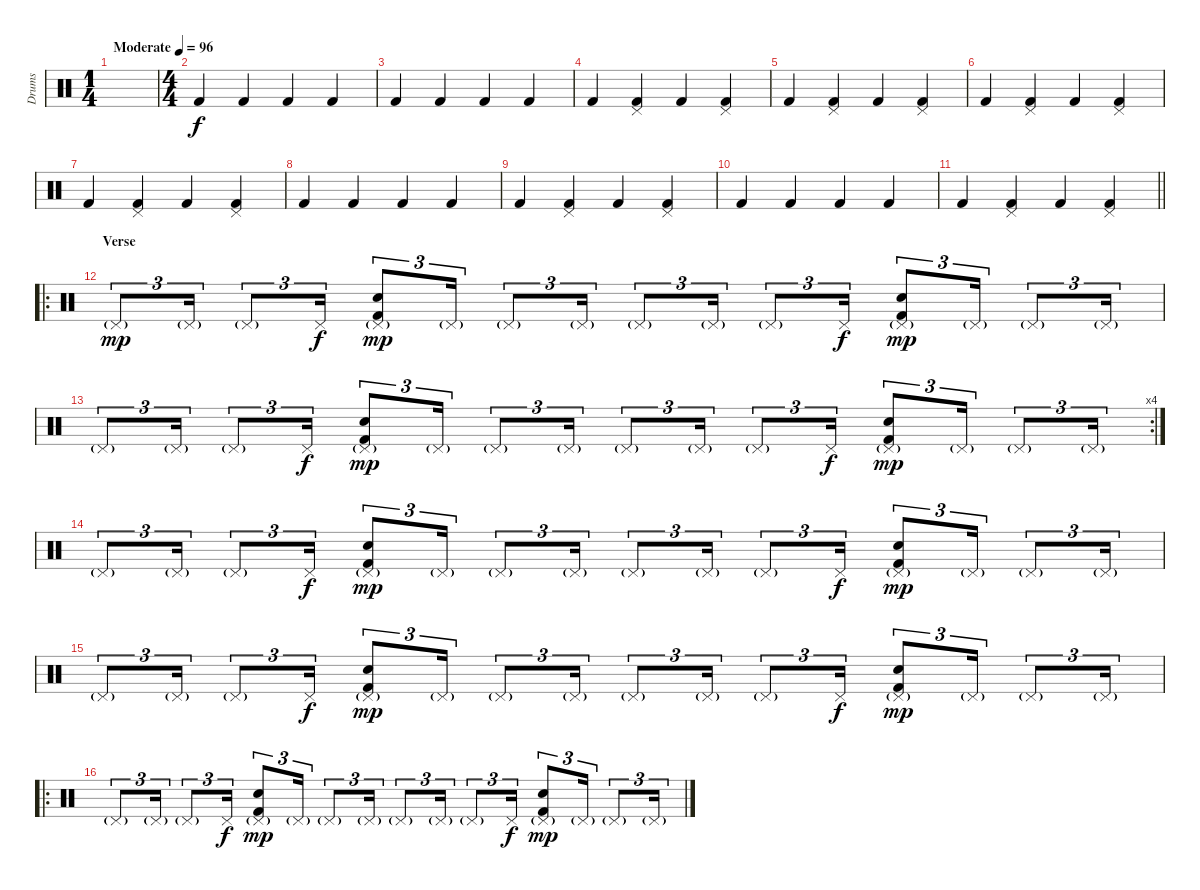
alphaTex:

\track ("Drums" "Drums") {instrument percussion}
\staff {score}
\articulation defaults
\ts (1 4)
\tempo (96 "Moderate")
\clef neutral
\ks c
|
\ts (4 4)
"Kick (hit) 2".4 "Kick (hit) 2".4 "Kick (hit) 2".4 "Kick (hit) 2".4 |
"Kick (hit) 2".4 "Kick (hit) 2".4 "Kick (hit) 2".4 "Kick (hit) 2".4 |
"Kick (hit) 2".4 ("Pedal Hi-Hat (hit)" "Kick (hit) 2").4 "Kick (hit) 2".4 ("Pedal Hi-Hat (hit)" "Kick (hit) 2").4 |
"Kick (hit) 2".4 ("Pedal Hi-Hat (hit)" "Kick (hit) 2").4 "Kick (hit) 2".4 ("Pedal Hi-Hat (hit)" "Kick (hit) 2").4 |
"Kick (hit) 2".4 ("Pedal Hi-Hat (hit)" "Kick (hit) 2").4 "Kick (hit) 2".4 ("Pedal Hi-Hat (hit)" "Kick (hit) 2").4 |
"Kick (hit) 2".4 ("Pedal Hi-Hat (hit)" "Kick (hit) 2").4 "Kick (hit) 2".4 ("Pedal Hi-Hat (hit)" "Kick (hit) 2").4 |
"Kick (hit) 2".4 "Kick (hit) 2".4 "Kick (hit) 2".4 "Kick (hit) 2".4 |
"Kick (hit) 2".4 ("Pedal Hi-Hat (hit)" "Kick (hit) 2").4 "Kick (hit) 2".4 ("Pedal Hi-Hat (hit)" "Kick (hit) 2").4 |
"Kick (hit) 2".4 "Kick (hit) 2".4 "Kick (hit) 2".4 "Kick (hit) 2".4 |
\barLineRight lightlight "Kick (hit) 2".4
("Pedal Hi-Hat (hit)" "Kick (hit) 2").4 "Kick (hit) 2".4 ("Pedal Hi-Hat (hit)" "Kick (hit) 2").4 |
\ro
\section ("" "Verse")
"Pedal Hi-Hat (hit)"{g}.8{tu (3 2) dy mp} "Pedal Hi-Hat (hit)"{g}.16{tu (3 2)} "Pedal Hi-Hat (hit)"{g}.8{tu (3 2)} "Pedal Hi-Hat (hit)".16{tu (3 2) dy f} ("Pedal Hi-Hat (hit)"{g} "Electric Snare (hit)" "Kick (hit) 2").8{tu (3 2) dy mp} "Pedal Hi-Hat (hit)"{g}.16{tu (3 2)} "Pedal Hi-Hat (hit)"{g}.8{tu (3 2)} "Pedal Hi-Hat (hit)"{g}.16{tu (3 2)} "Pedal Hi-Hat (hit)"{g}.8{tu (3 2)} "Pedal Hi-Hat (hit)"{g}.16{tu (3 2)} "Pedal Hi-Hat (hit)"{g}.8{tu (3 2)} "Pedal Hi-Hat (hit)".16{tu (3 2) dy f} ("Pedal Hi-Hat (hit)"{g} "Electric Snare (hit)" "Kick (hit) 2").8{tu (3 2) dy mp} "Pedal Hi-Hat (hit)"{g}.16{tu (3 2)} "Pedal Hi-Hat (hit)"{g}.8{tu (3 2)} "Pedal Hi-Hat (hit)"{g}.16{tu (3 2)} |
\rc 4 "Pedal Hi-Hat (hit)"{g}.8{tu (3 2)} "Pedal Hi-Hat (hit)"{g}.16{tu (3 2)} "Pedal Hi-Hat (hit)"{g}.8{tu (3 2)} "Pedal Hi-Hat (hit)".16{tu (3 2) dy f}
("Pedal Hi-Hat (hit)"{g} "Electric Snare (hit)" "Kick (hit) 2").8{tu (3 2) dy mp} "Pedal Hi-Hat (hit)"{g}.16{tu (3 2)} "Pedal Hi-Hat (hit)"{g}.8{tu (3 2)} "Pedal Hi-Hat (hit)"{g}.16{tu (3 2)} "Pedal Hi-Hat (hit)"{g}.8{tu (3 2)} "Pedal Hi-Hat (hit)"{g}.16{tu (3 2)} "Pedal Hi-Hat (hit)"{g}.8{tu (3 2)} "Pedal Hi-Hat (hit)".16{tu (3 2) dy f} ("Pedal Hi-Hat (hit)"{g} "Electric Snare (hit)" "Kick (hit) 2").8{tu (3 2) dy mp} "Pedal Hi-Hat (hit)"{g}.16{tu (3 2)} "Pedal Hi-Hat (hit)"{g}.8{tu (3 2)} "Pedal Hi-Hat (hit)"{g}.16{tu (3 2)} |
"Pedal Hi-Hat (hit)"{g}.8{tu (3 2)} "Pedal Hi-Hat (hit)"{g}.16{tu (3 2)} "Pedal Hi-Hat (hit)"{g}.8{tu (3 2)} "Pedal Hi-Hat (hit)".16{tu (3 2) dy f} ("Pedal Hi-Hat (hit)"{g} "Electric Snare (hit)" "Kick (hit) 2").8{tu (3 2) dy mp} "Pedal Hi-Hat (hit)"{g}.16{tu (3 2)} "Pedal Hi-Hat (hit)"{g}.8{tu (3 2)} "Pedal Hi-Hat (hit)"{g}.16{tu (3 2)} "Pedal Hi-Hat (hit)"{g}.8{tu (3 2)} "Pedal Hi-Hat (hit)"{g}.16{tu (3 2)} "Pedal Hi-Hat (hit)"{g}.8{tu (3 2)} "Pedal Hi-Hat (hit)".16{tu (3 2) dy f} ("Pedal Hi-Hat (hit)"{g} "Electric Snare (hit)" "Kick (hit) 2").8{tu (3 2) dy mp} "Pedal Hi-Hat (hit)"{g}.16{tu (3 2)} "Pedal Hi-Hat (hit)"{g}.8{tu (3 2)} "Pedal Hi-Hat (hit)"{g}.16{tu (3 2)} |
"Pedal Hi-Hat (hit)"{g}.8{tu (3 2)} "Pedal Hi-Hat (hit)"{g}.16{tu (3 2)} "Pedal Hi-Hat (hit)"{g}.8{tu (3 2)} "Pedal Hi-Hat (hit)".16{tu (3 2) dy f} ("Pedal Hi-Hat (hit)"{g} "Electric Snare (hit)" "Kick (hit) 2").8{tu (3 2) dy mp} "Pedal Hi-Hat (hit)"{g}.16{tu (3 2)} "Pedal Hi-Hat (hit)"{g}.8{tu (3 2)} "Pedal Hi-Hat (hit)"{g}.16{tu (3 2)} "Pedal Hi-Hat (hit)"{g}.8{tu (3 2)} "Pedal Hi-Hat (hit)"{g}.16{tu (3 2)} "Pedal Hi-Hat (hit)"{g}.8{tu (3 2)} "Pedal Hi-Hat (hit)".16{tu (3 2) dy f} ("Pedal Hi-Hat (hit)"{g} "Electric Snare (hit)" "Kick (hit) 2").8{tu (3 2) dy mp} "Pedal Hi-Hat (hit)"{g}.16{tu (3 2)} "Pedal Hi-Hat (hit)"{g}.8{tu (3 2)} "Pedal Hi-Hat (hit)"{g}.16{tu (3 2)} |
\ro "Pedal Hi-Hat (hit)"{g}.8{tu (3 2)} "Pedal Hi-Hat (hit)"{g}.16{tu (3 2)} "Pedal Hi-Hat (hit)"{g}.8{tu (3 2)} "Pedal Hi-Hat (hit)".16{tu (3 2) dy f}
("Pedal Hi-Hat (hit)"{g} "Electric Snare (hit)" "Kick (hit) 2").8{tu (3 2) dy mp} "Pedal Hi-Hat (hit)"{g}.16{tu (3 2)} "Pedal Hi-Hat (hit)"{g}.8{tu (3 2)} "Pedal Hi-Hat (hit)"{g}.16{tu (3 2)} "Pedal Hi-Hat (hit)"{g}.8{tu (3 2)} "Pedal Hi-Hat (hit)"{g}.16{tu (3 2)} "Pedal Hi-Hat (hit)"{g}.8{tu (3 2)} "Pedal Hi-Hat (hit)".16{tu (3 2) dy f} ("Pedal Hi-Hat (hit)"{g} "Electric Snare (hit)" "Kick (hit) 2").8{tu (3 2) dy mp} "Pedal Hi-Hat (hit)"{g}.16{tu (3 2)} "Pedal Hi-Hat (hit)"{g}.8{tu (3 2)} "Pedal Hi-Hat (hit)"{g}.16{tu (3 2)}
